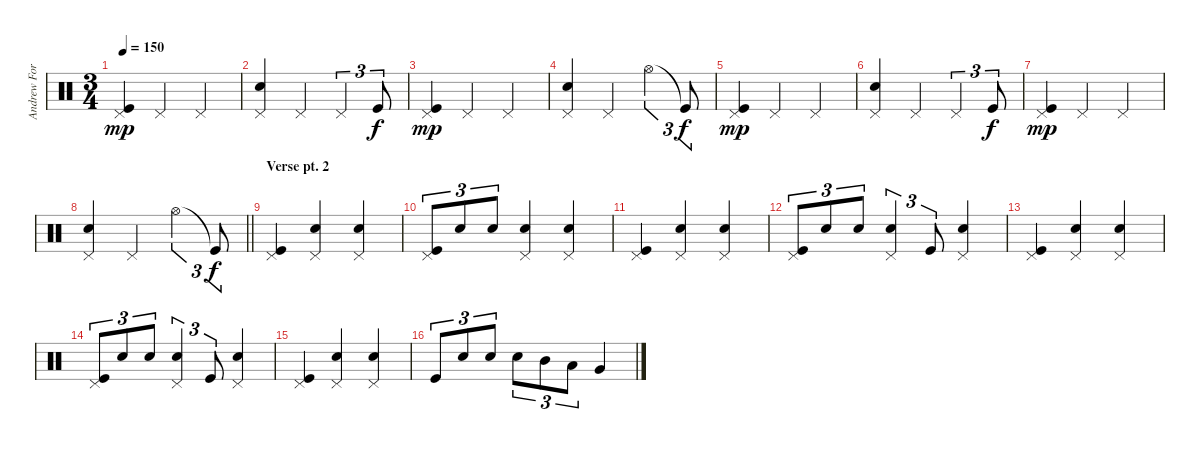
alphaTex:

\track ("Andrew Forsman" "Andrew For") {instrument percussion}
\staff {score}
\articulation defaults
\ts (3 4)
\tempo 150
\clef neutral
\ks c
("Pedal Hi-Hat (hit)" "Kick (hit)").4{dy mp} "Pedal Hi-Hat (hit)".4 "Pedal Hi-Hat (hit)".4 |
("Pedal Hi-Hat (hit)" "Electric Snare (hit)").4 "Pedal Hi-Hat (hit)".4 "Pedal Hi-Hat (hit)".4{tu (3 2)} "Kick (hit)".8{tu (3 2) dy f} |
("Pedal Hi-Hat (hit)" "Kick (hit)").4{dy mp} "Pedal Hi-Hat (hit)".4 "Pedal Hi-Hat (hit)".4 |
("Pedal Hi-Hat (hit)" "Electric Snare (hit)").4 "Pedal Hi-Hat (hit)".4 "Hi-Hat (open)".4{tu (3 2)} "Kick (hit)"{t}.8{tu (3 2) dy f} |
("Pedal Hi-Hat (hit)" "Kick (hit)").4{dy mp} "Pedal Hi-Hat (hit)".4 "Pedal Hi-Hat (hit)".4 |
("Pedal Hi-Hat (hit)" "Electric Snare (hit)").4 "Pedal Hi-Hat (hit)".4 "Pedal Hi-Hat (hit)".4{tu (3 2)} "Kick (hit)".8{tu (3 2) dy f} |
("Pedal Hi-Hat (hit)" "Kick (hit)").4{dy mp} "Pedal Hi-Hat (hit)".4 "Pedal Hi-Hat (hit)".4 |
\barLineRight lightlight
("Pedal Hi-Hat (hit)" "Electric Snare (hit)").4 "Pedal Hi-Hat (hit)".4 "Hi-Hat (open)".4{tu (3 2)} "Kick (hit)"{t}.8{tu (3 2) dy f} |
\section ("" "Verse pt. 2")
("Pedal Hi-Hat (hit)" "Kick (hit)").4 ("Pedal Hi-Hat (hit)" "Electric Snare (hit)").4 ("Pedal Hi-Hat (hit)" "Electric Snare (hit)").4 |
("Pedal Hi-Hat (hit)" "Kick (hit)").8{tu (3 2)} "Electric Snare (hit)".8{tu (3 2)} "Electric Snare (hit)".8{tu (3 2)} ("Pedal Hi-Hat (hit)" "Electric Snare (hit)").4 ("Pedal Hi-Hat (hit)" "Electric Snare (hit)").4 |
("Pedal Hi-Hat (hit)" "Kick (hit)").4 ("Pedal Hi-Hat (hit)" "Electric Snare (hit)").4 ("Pedal Hi-Hat (hit)" "Electric Snare (hit)").4 |
("Pedal Hi-Hat (hit)" "Kick (hit)").8{tu (3 2)} "Electric Snare (hit)".8{tu (3 2)} "Electric Snare (hit)".8{tu (3 2)} ("Pedal Hi-Hat (hit)" "Electric Snare (hit)").4{tu (3 2)} "Kick (hit)".8{tu (3 2)} ("Pedal Hi-Hat (hit)" "Electric Snare (hit)").4 |
("Pedal Hi-Hat (hit)" "Kick (hit)").4 ("Pedal Hi-Hat (hit)" "Electric Snare (hit)").4 ("Pedal Hi-Hat (hit)" "Electric Snare (hit)").4 |
("Pedal Hi-Hat (hit)" "Kick (hit)").8{tu (3 2)} "Electric Snare (hit)".8{tu (3 2)} "Electric Snare (hit)".8{tu (3 2)} ("Pedal Hi-Hat (hit)" "Electric Snare (hit)").4{tu (3 2)} "Kick (hit)".8{tu (3 2)} ("Pedal Hi-Hat (hit)" "Electric Snare (hit)").4 |
("Pedal Hi-Hat (hit)" "Kick (hit)").4 ("Pedal Hi-Hat (hit)" "Electric Snare (hit)").4 ("Pedal Hi-Hat (hit)" "Electric Snare (hit)").4 |
"Kick (hit)".8{tu (3 2)} "Electric Snare (hit)".8{tu (3 2)} "Electric Snare (hit)".8{tu (3 2)} "Electric Snare (hit)".8{tu (3 2)} "Mid Tom (hit)".8{tu (3 2)} "Low Tom (hit)".8{tu (3 2)} "Very Low Tom (hit)".4
